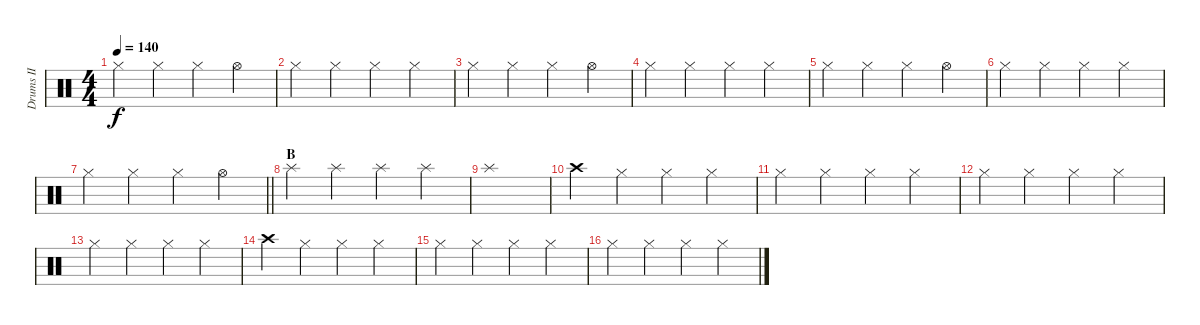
\track ("Drums II" "Drums II") {instrument percussion}
\staff {score}
\articulation defaults
\ts (4 4)
\tempo 140
\clef neutral
\ks c "Hi-Hat (closed)".4{dy f} "Hi-Hat (closed)".4 "Hi-Hat (closed)".4 "Hi-Hat (open)".4
|
"Hi-Hat (closed)".4 "Hi-Hat (closed)".4 "Hi-Hat (closed)".4 "Hi-Hat (closed)".4 |
"Hi-Hat (closed)".4 "Hi-Hat (closed)".4 "Hi-Hat (closed)".4 "Hi-Hat (open)".4 |
"Hi-Hat (closed)".4 "Hi-Hat (closed)".4 "Hi-Hat (closed)".4 "Hi-Hat (closed)".4 |
"Hi-Hat (closed)".4 "Hi-Hat (closed)".4 "Hi-Hat (closed)".4 "Hi-Hat (open)".4 |
"Hi-Hat (closed)".4 "Hi-Hat (closed)".4 "Hi-Hat (closed)".4 "Hi-Hat (closed)".4 |
\barLineRight lightlight "Hi-Hat (closed)".4 "Hi-Hat (closed)".4 "Hi-Hat (closed)".4 "Hi-Hat (open)".4
|
\section ("" "B")
"Splash (hit)".4 "Splash (hit)".4 "Splash (hit)".4 "Splash (hit)".4 |
"Splash (hit)".1 |
"Crash high (hit)".4 "Hi-Hat (closed)".4 "Hi-Hat (closed)".4 "Hi-Hat (closed)".4 |
"Hi-Hat (closed)".4 "Hi-Hat (closed)".4 "Hi-Hat (closed)".4 "Hi-Hat (closed)".4 |
"Hi-Hat (closed)".4 "Hi-Hat (closed)".4 "Hi-Hat (closed)".4 "Hi-Hat (closed)".4 |
"Hi-Hat (closed)".4 "Hi-Hat (closed)".4 "Hi-Hat (closed)".4 "Hi-Hat (closed)".4 |
"Crash high (hit)".4 "Hi-Hat (closed)".4 "Hi-Hat (closed)".4 "Hi-Hat (closed)".4 |
"Hi-Hat (closed)".4 "Hi-Hat (closed)".4 "Hi-Hat (closed)".4 "Hi-Hat (closed)".4 |
"Hi-Hat (closed)".4 "Hi-Hat (closed)".4 "Hi-Hat (closed)".4 "Hi-Hat (closed)".4
